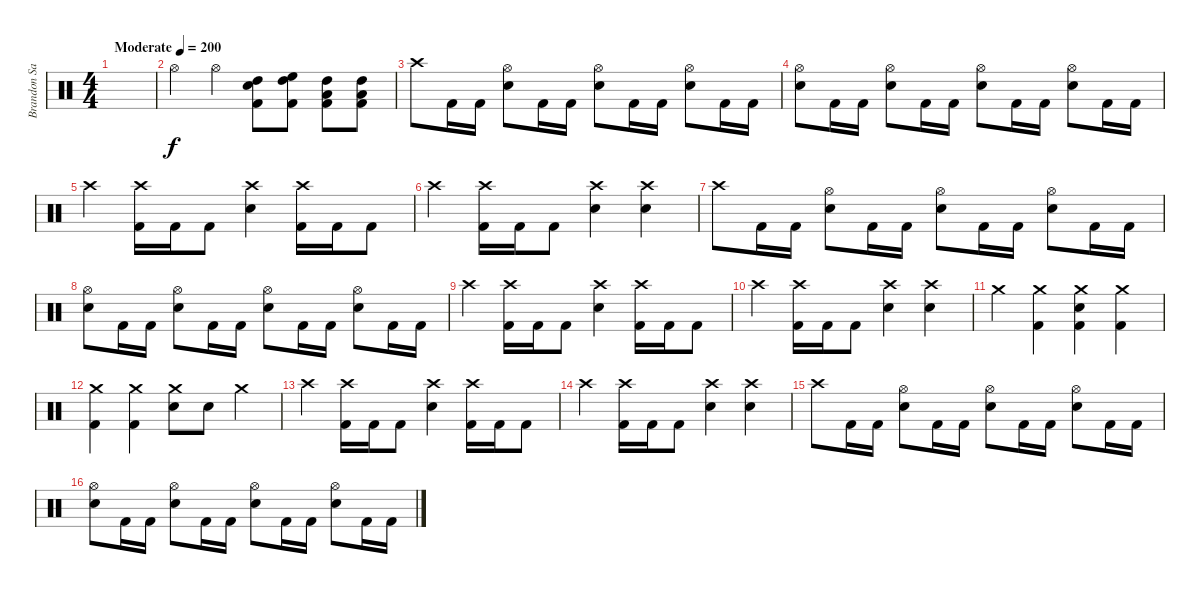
\track ("Brandon Saller" "Brandon Sa") {instrument percussion}
\staff {score}
\articulation defaults
\ts (4 4)
\tempo (200 "Moderate")
\clef neutral
\ks c
|
"Hi-Hat (open)".4 "Hi-Hat (open)".4 ("High Tom (hit)" "Electric Snare (hit)" "Kick (hit) 2").8 ("High Floor Tom (hit)" "High Tom (hit)" "Kick (hit) 2").8 ("High Tom (hit)" "Low Tom (hit)" "Kick (hit) 2").8 ("Low Floor Tom (hit)" "High Tom (hit)" "Kick (hit) 2").8 |
"Crash high (hit)".8 "Kick (hit) 2".16 "Kick (hit) 2".16 ("Hi-Hat (open)" "Electric Snare (hit)").8 "Kick (hit) 2".16 "Kick (hit) 2".16 ("Hi-Hat (open)" "Electric Snare (hit)").8 "Kick (hit) 2".16 "Kick (hit) 2".16 ("Hi-Hat (open)" "Electric Snare (hit)").8 "Kick (hit) 2".16 "Kick (hit) 2".16 |
("Hi-Hat (open)" "Electric Snare (hit)").8 "Kick (hit) 2".16 "Kick (hit) 2".16 ("Hi-Hat (open)" "Electric Snare (hit)").8 "Kick (hit) 2".16 "Kick (hit) 2".16 ("Hi-Hat (open)" "Electric Snare (hit)").8 "Kick (hit) 2".16 "Kick (hit) 2".16 ("Hi-Hat (open)" "Electric Snare (hit)").8 "Kick (hit) 2".16 "Kick (hit) 2".16 |
"Crash high (hit)".4 ("Crash high (hit)" "Kick (hit) 2").16 "Kick (hit) 2".16 "Kick (hit) 2".8 ("Crash high (hit)" "Electric Snare (hit)").4 ("Crash high (hit)" "Kick (hit) 2").16 "Kick (hit) 2".16 "Kick (hit) 2".8 |
"Crash high (hit)".4 ("Crash high (hit)" "Kick (hit) 2").16 "Kick (hit) 2".16 "Kick (hit) 2".8 ("Crash high (hit)" "Electric Snare (hit)").4 ("Crash high (hit)" "Electric Snare (hit)").4 |
"Crash high (hit)".8 "Kick (hit) 2".16 "Kick (hit) 2".16 ("Hi-Hat (open)" "Electric Snare (hit)").8 "Kick (hit) 2".16 "Kick (hit) 2".16 ("Hi-Hat (open)" "Electric Snare (hit)").8 "Kick (hit) 2".16 "Kick (hit) 2".16 ("Hi-Hat (open)" "Electric Snare (hit)").8 "Kick (hit) 2".16 "Kick (hit) 2".16 |
("Hi-Hat (open)" "Electric Snare (hit)").8 "Kick (hit) 2".16 "Kick (hit) 2".16 ("Hi-Hat (open)" "Electric Snare (hit)").8 "Kick (hit) 2".16 "Kick (hit) 2".16 ("Hi-Hat (open)" "Electric Snare (hit)").8 "Kick (hit) 2".16 "Kick (hit) 2".16 ("Hi-Hat (open)" "Electric Snare (hit)").8 "Kick (hit) 2".16 "Kick (hit) 2".16 |
"Crash high (hit)".4 ("Crash high (hit)" "Kick (hit) 2").16 "Kick (hit) 2".16 "Kick (hit) 2".8 ("Crash high (hit)" "Electric Snare (hit)").4 ("Crash high (hit)" "Kick (hit) 2").16 "Kick (hit) 2".16 "Kick (hit) 2".8 |
"Crash high (hit)".4 ("Crash high (hit)" "Kick (hit) 2").16 "Kick (hit) 2".16 "Kick (hit) 2".8 ("Crash high (hit)" "Electric Snare (hit)").4 ("Crash high (hit)" "Electric Snare (hit)").4 |
"Crash medium (hit)".4 ("Crash medium (hit)" "Kick (hit) 2").4 ("Crash medium (hit)" "Electric Snare (hit)" "Kick (hit) 2").4 ("Crash medium (hit)" "Kick (hit) 2").4 |
("Crash medium (hit)" "Kick (hit) 2").4 ("Crash medium (hit)" "Kick (hit) 2").4 ("Crash medium (hit)" "Electric Snare (hit)").8 "Electric Snare (hit)".8 "Crash medium (hit)".4 |
"Crash high (hit)".4 ("Crash high (hit)" "Kick (hit) 2").16 "Kick (hit) 2".16 "Kick (hit) 2".8 ("Crash high (hit)" "Electric Snare (hit)").4 ("Crash high (hit)" "Kick (hit) 2").16 "Kick (hit) 2".16 "Kick (hit) 2".8 |
"Crash high (hit)".4 ("Crash high (hit)" "Kick (hit) 2").16 "Kick (hit) 2".16 "Kick (hit) 2".8 ("Crash high (hit)" "Electric Snare (hit)").4 ("Crash high (hit)" "Electric Snare (hit)").4 |
"Crash high (hit)".8 "Kick (hit) 2".16 "Kick (hit) 2".16 ("Hi-Hat (open)" "Electric Snare (hit)").8 "Kick (hit) 2".16 "Kick (hit) 2".16 ("Hi-Hat (open)" "Electric Snare (hit)").8 "Kick (hit) 2".16 "Kick (hit) 2".16 ("Hi-Hat (open)" "Electric Snare (hit)").8 "Kick (hit) 2".16 "Kick (hit) 2".16 |
("Hi-Hat (open)" "Electric Snare (hit)").8 "Kick (hit) 2".16 "Kick (hit) 2".16 ("Hi-Hat (open)" "Electric Snare (hit)").8 "Kick (hit) 2".16 "Kick (hit) 2".16 ("Hi-Hat (open)" "Electric Snare (hit)").8 "Kick (hit) 2".16 "Kick (hit) 2".16 ("Hi-Hat (open)" "Electric Snare (hit)").8 "Kick (hit) 2".16 "Kick (hit) 2".16
